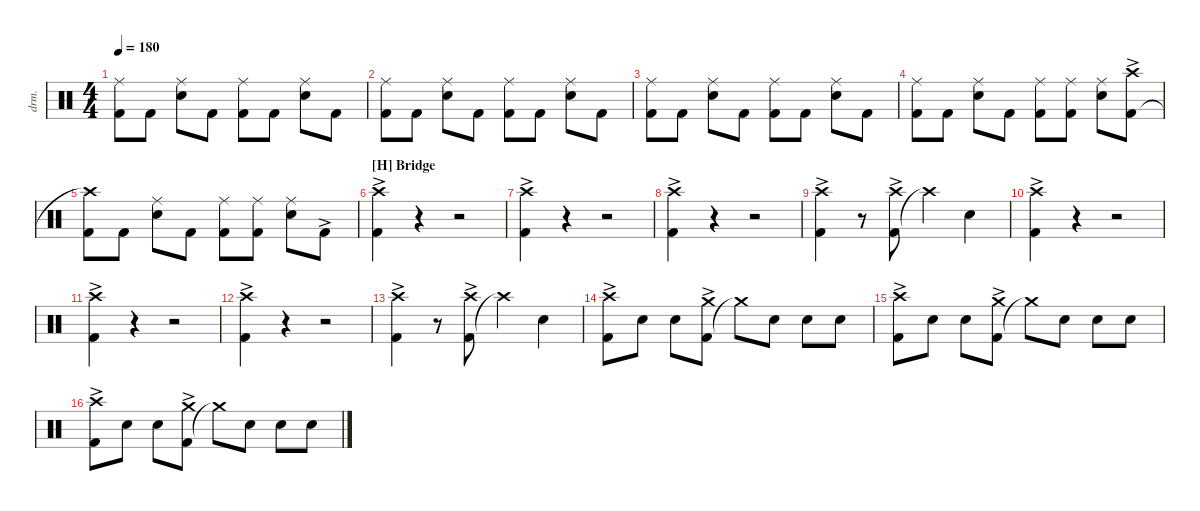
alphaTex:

\defaultSystemsLayout 4
\hideDynamics
\bracketExtendMode nobrackets
\otherSystemsTrackNameOrientation horizontal
\track ("Drum" "drm.") {instrument percussion}
\staff {score}
\articulation defaults
\ts (4 4)
\tempo 180
\clef neutral
\ks c
("Ride (middle)" "Kick (hit) 2").8{dy f beam Down} "Kick (hit) 2".8{beam Down} ("Snare (hit) 2" "Ride (middle)").8{beam Down} "Kick (hit) 2".8{beam Down} ("Kick (hit) 2" "Ride (middle)").8{beam Down} "Kick (hit) 2".8{beam Down} ("Snare (hit) 2" "Ride (middle)").8{beam Down} "Kick (hit) 2".8{beam Down} |
("Ride (middle)" "Kick (hit) 2").8{beam Down} "Kick (hit) 2".8{beam Down} ("Snare (hit) 2" "Ride (middle)").8{beam Down} "Kick (hit) 2".8{beam Down} ("Kick (hit) 2" "Ride (middle)").8{beam Down} "Kick (hit) 2".8{beam Down} ("Snare (hit) 2" "Ride (middle)").8{beam Down} "Kick (hit) 2".8{beam Down} |
("Ride (middle)" "Kick (hit) 2").8{beam Down} "Kick (hit) 2".8{beam Down} ("Snare (hit) 2" "Ride (middle)").8{beam Down} "Kick (hit) 2".8{beam Down} ("Kick (hit) 2" "Ride (middle)").8{beam Down} "Kick (hit) 2".8{beam Down} ("Snare (hit) 2" "Ride (middle)").8{beam Down} "Kick (hit) 2".8{beam Down} |
("Ride (middle)" "Kick (hit) 2").8{beam Down} "Kick (hit) 2".8{beam Down} ("Snare (hit) 2" "Ride (middle)").8{beam Down} "Kick (hit) 2".8{beam Down} ("Kick (hit) 2" "Ride (middle)").8{beam Down} ("Kick (hit) 2" "Ride (middle)").8{beam Down} ("Snare (hit) 2" "Ride (middle)").8{beam Down} ("Kick (hit) 2"{ac} "Crash high (hit)").8{beam Down} |
("Crash high (hit)"{t} "Kick (hit) 2").8{beam Down} "Kick (hit) 2".8{beam Down} ("Snare (hit) 2" "Ride (middle)").8{beam Down} "Kick (hit) 2".8{beam Down} ("Kick (hit) 2" "Ride (middle)").8{beam Down} ("Kick (hit) 2" "Ride (middle)").8{beam Down} ("Snare (hit) 2" "Ride (middle)").8{beam Down} "Kick (hit) 2"{ac}.8{beam Down} |
\section ("H" "Bridge")
("Kick (hit) 2"{ac} "Crash high (hit)").4{beam Down} r.4{beam Down} r.2{beam Down} |
("Kick (hit) 2"{ac} "Crash high (hit)"{ac}).4{beam Down} r.4{beam Down} r.2{beam Down} |
("Kick (hit) 2"{ac} "Crash high (hit)"{ac}).4{beam Down} r.4{beam Down} r.2{beam Down} |
("Kick (hit) 2"{ac} "Crash high (hit)"{ac}).4{beam Down} r.8{beam Down} ("Kick (hit) 2"{ac} "Crash high (hit)"{ac}).8{beam Down} "Crash high (hit)"{t}.4{beam Down} "Snare (hit) 2".4{beam Down} |
("Kick (hit) 2"{ac} "Crash high (hit)").4{beam Down} r.4{beam Down} r.2{beam Down} |
("Kick (hit) 2"{ac} "Crash high (hit)"{ac}).4{beam Down} r.4{beam Down} r.2{beam Down} |
("Kick (hit) 2"{ac} "Crash high (hit)"{ac}).4{beam Down} r.4{beam Down} r.2{beam Down} |
("Kick (hit) 2"{ac} "Crash high (hit)"{ac}).4{beam Down} r.8{beam Down} ("Kick (hit) 2"{ac} "Crash high (hit)"{ac}).8{beam Down} "Crash high (hit)"{t}.4{beam Down} "Snare (hit) 2".4{beam Down} |
("Kick (hit) 2"{ac} "Crash high (hit)"{ac}).8{beam Down} "Snare (hit) 2".8{beam Down} "Snare (hit) 2".8{beam Down} ("Kick (hit) 2"{ac} "Crash medium (hit)"{ac}).8{beam Down} "Crash medium (hit)"{t}.8{beam Down} "Snare (hit) 2".8{beam Down} "Snare (hit) 2".8{beam Down} "Snare (hit) 2".8{beam Down} |
("Kick (hit) 2"{ac} "Crash high (hit)"{ac}).8{beam Down} "Snare (hit) 2".8{beam Down} "Snare (hit) 2".8{beam Down} ("Kick (hit) 2"{ac} "Crash medium (hit)"{ac}).8{beam Down} "Crash medium (hit)"{t}.8{beam Down} "Snare (hit) 2".8{beam Down} "Snare (hit) 2".8{beam Down} "Snare (hit) 2".8{beam Down} |
("Kick (hit) 2"{ac} "Crash high (hit)"{ac}).8{beam Down} "Snare (hit) 2".8{beam Down} "Snare (hit) 2".8{beam Down} ("Kick (hit) 2"{ac} "Crash medium (hit)"{ac}).8{beam Down} "Crash medium (hit)"{t}.8{beam Down} "Snare (hit) 2".8{beam Down} "Snare (hit) 2".8{beam Down} "Snare (hit) 2".8{beam Down}
